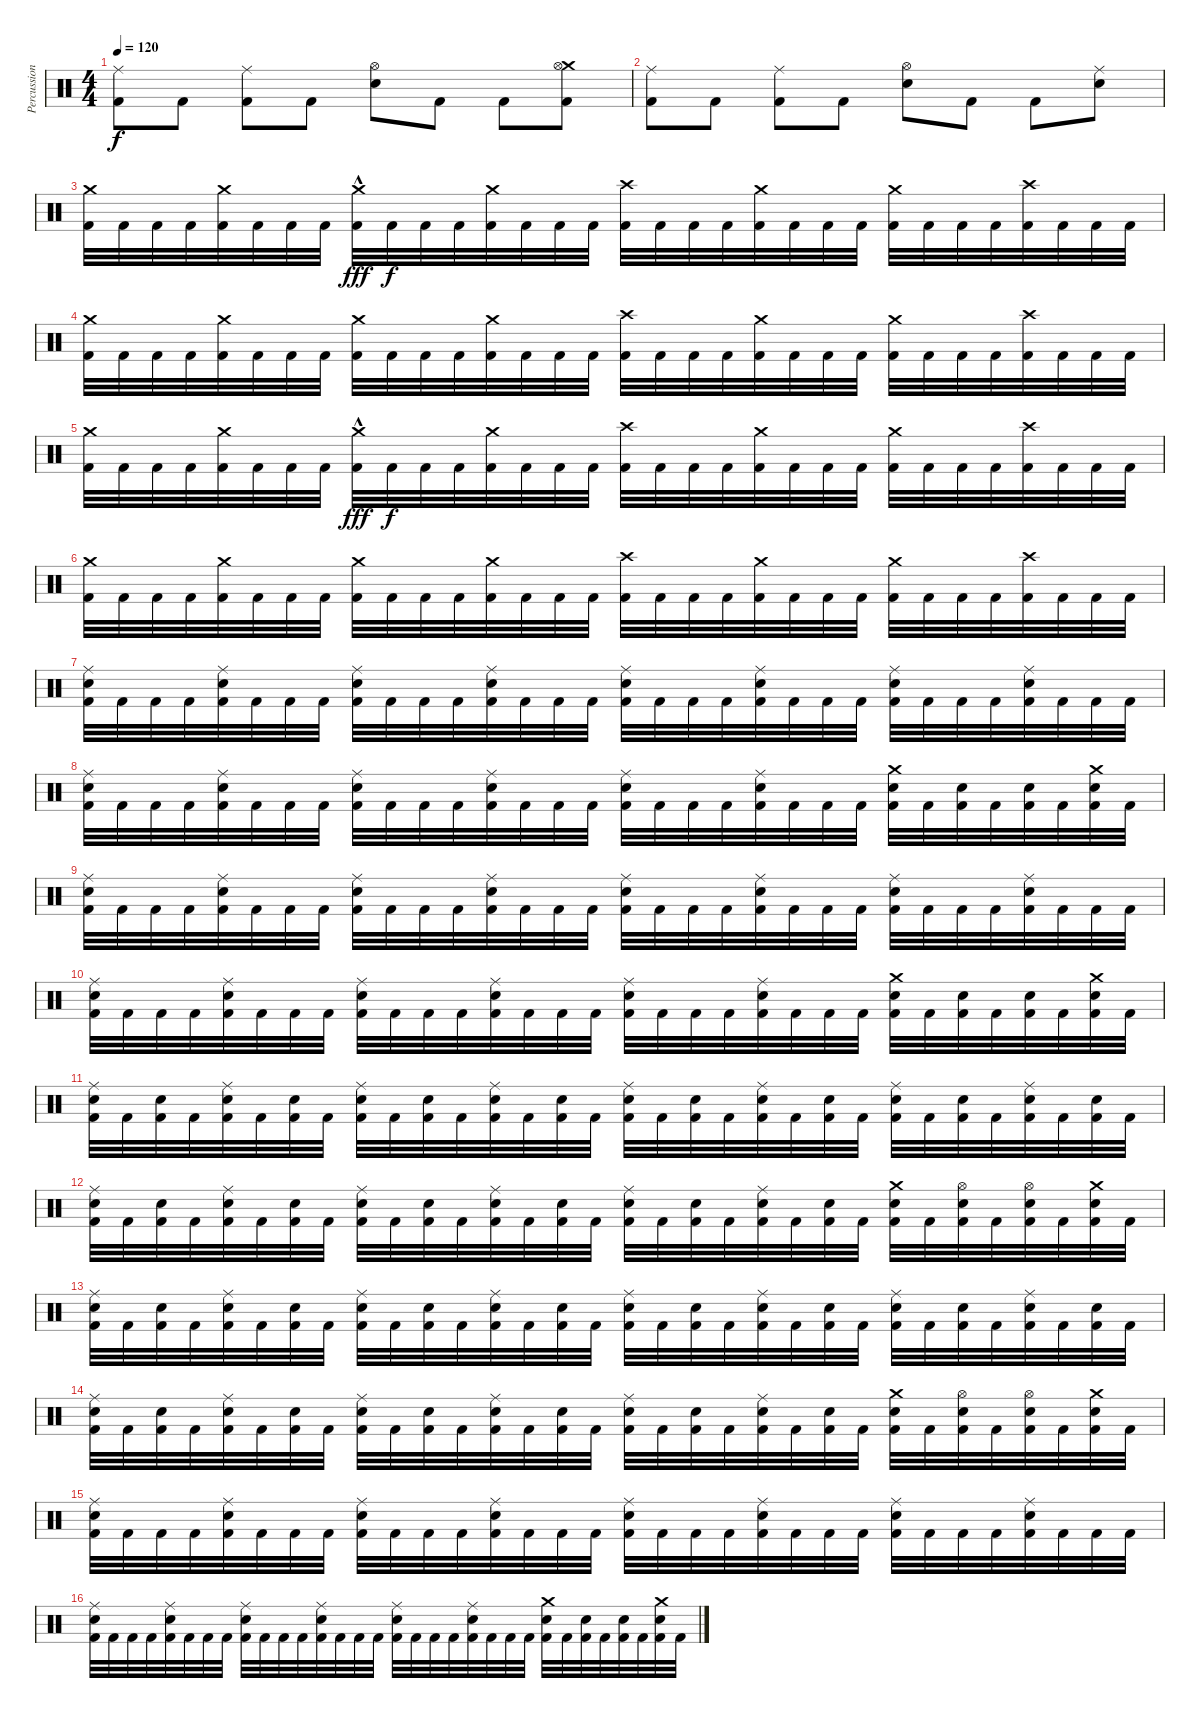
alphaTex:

\track ("Percussion" "Percussion") {instrument percussion}
\staff {score}
\articulation defaults
\ts (4 4)
\tempo 120
\clef neutral
\ks c
("Ride (middle)" "Kick (hit) 2").8{dy f} "Kick (hit) 2".8 ("Ride (middle)" "Kick (hit) 2").8 "Kick (hit) 2".8 ("Hi-Hat (open)" "Snare (hit) 2").8 "Kick (hit) 2".8 "Kick (hit) 2".8 ("Crash medium (hit)" "Hi-Hat (open)" "Kick (hit) 2").8 |
("Ride (middle)" "Kick (hit) 2").8 "Kick (hit) 2".8 ("Ride (middle)" "Kick (hit) 2").8 "Kick (hit) 2".8 ("Hi-Hat (open)" "Snare (hit) 2").8 "Kick (hit) 2".8 "Kick (hit) 2".8 ("Ride (middle)" "Snare (hit) 2").8 |
("Crash medium (hit)" "Kick (hit) 2").32 "Kick (hit) 2".32 "Kick (hit) 2".32 "Kick (hit) 2".32 ("Crash medium (hit)" "Kick (hit) 2").32 "Kick (hit) 2".32 "Kick (hit) 2".32 "Kick (hit) 2".32 ("Crash medium (hit)"{hac} "Kick (hit) 2").32{dy fff} "Kick (hit) 2".32{dy f} "Kick (hit) 2".32 "Kick (hit) 2".32 ("Crash medium (hit)" "Kick (hit) 2").32 "Kick (hit) 2".32 "Kick (hit) 2".32 "Kick (hit) 2".32 ("Crash high (hit)" "Kick (hit) 2").32 "Kick (hit) 2".32 "Kick (hit) 2".32 "Kick (hit) 2".32 ("Crash medium (hit)" "Kick (hit) 2").32 "Kick (hit) 2".32 "Kick (hit) 2".32 "Kick (hit) 2".32 ("Crash medium (hit)" "Kick (hit) 2").32 "Kick (hit) 2".32 "Kick (hit) 2".32 "Kick (hit) 2".32 ("Crash high (hit)" "Kick (hit) 2").32 "Kick (hit) 2".32 "Kick (hit) 2".32 "Kick (hit) 2".32 |
("Crash medium (hit)" "Kick (hit) 2").32 "Kick (hit) 2".32 "Kick (hit) 2".32 "Kick (hit) 2".32 ("Crash medium (hit)" "Kick (hit) 2").32 "Kick (hit) 2".32 "Kick (hit) 2".32 "Kick (hit) 2".32 ("Crash medium (hit)" "Kick (hit) 2").32 "Kick (hit) 2".32 "Kick (hit) 2".32 "Kick (hit) 2".32 ("Crash medium (hit)" "Kick (hit) 2").32 "Kick (hit) 2".32 "Kick (hit) 2".32 "Kick (hit) 2".32 ("Crash high (hit)" "Kick (hit) 2").32 "Kick (hit) 2".32 "Kick (hit) 2".32 "Kick (hit) 2".32 ("Crash medium (hit)" "Kick (hit) 2").32 "Kick (hit) 2".32 "Kick (hit) 2".32 "Kick (hit) 2".32 ("Crash medium (hit)" "Kick (hit) 2").32 "Kick (hit) 2".32 "Kick (hit) 2".32 "Kick (hit) 2".32 ("Crash high (hit)" "Kick (hit) 2").32 "Kick (hit) 2".32 "Kick (hit) 2".32 "Kick (hit) 2".32 |
("Crash medium (hit)" "Kick (hit) 2").32 "Kick (hit) 2".32 "Kick (hit) 2".32 "Kick (hit) 2".32 ("Crash medium (hit)" "Kick (hit) 2").32 "Kick (hit) 2".32 "Kick (hit) 2".32 "Kick (hit) 2".32 ("Crash medium (hit)"{hac} "Kick (hit) 2").32{dy fff} "Kick (hit) 2".32{dy f} "Kick (hit) 2".32 "Kick (hit) 2".32 ("Crash medium (hit)" "Kick (hit) 2").32 "Kick (hit) 2".32 "Kick (hit) 2".32 "Kick (hit) 2".32 ("Crash high (hit)" "Kick (hit) 2").32 "Kick (hit) 2".32 "Kick (hit) 2".32 "Kick (hit) 2".32 ("Crash medium (hit)" "Kick (hit) 2").32 "Kick (hit) 2".32 "Kick (hit) 2".32 "Kick (hit) 2".32 ("Crash medium (hit)" "Kick (hit) 2").32 "Kick (hit) 2".32 "Kick (hit) 2".32 "Kick (hit) 2".32 ("Crash high (hit)" "Kick (hit) 2").32 "Kick (hit) 2".32 "Kick (hit) 2".32 "Kick (hit) 2".32 |
("Crash medium (hit)" "Kick (hit) 2").32 "Kick (hit) 2".32 "Kick (hit) 2".32 "Kick (hit) 2".32 ("Crash medium (hit)" "Kick (hit) 2").32 "Kick (hit) 2".32 "Kick (hit) 2".32 "Kick (hit) 2".32 ("Crash medium (hit)" "Kick (hit) 2").32 "Kick (hit) 2".32 "Kick (hit) 2".32 "Kick (hit) 2".32 ("Crash medium (hit)" "Kick (hit) 2").32 "Kick (hit) 2".32 "Kick (hit) 2".32 "Kick (hit) 2".32 ("Crash high (hit)" "Kick (hit) 2").32 "Kick (hit) 2".32 "Kick (hit) 2".32 "Kick (hit) 2".32 ("Crash medium (hit)" "Kick (hit) 2").32 "Kick (hit) 2".32 "Kick (hit) 2".32 "Kick (hit) 2".32 ("Crash medium (hit)" "Kick (hit) 2").32 "Kick (hit) 2".32 "Kick (hit) 2".32 "Kick (hit) 2".32 ("Crash high (hit)" "Kick (hit) 2").32 "Kick (hit) 2".32 "Kick (hit) 2".32 "Kick (hit) 2".32 |
("Ride (middle)" "Snare (hit) 2" "Kick (hit) 2").32 "Kick (hit) 2".32 "Kick (hit) 2".32 "Kick (hit) 2".32 ("Ride (middle)" "Snare (hit) 2" "Kick (hit) 2").32 "Kick (hit) 2".32 "Kick (hit) 2".32 "Kick (hit) 2".32 ("Ride (middle)" "Snare (hit) 2" "Kick (hit) 2").32 "Kick (hit) 2".32 "Kick (hit) 2".32 "Kick (hit) 2".32 ("Ride (middle)" "Snare (hit) 2" "Kick (hit) 2").32 "Kick (hit) 2".32 "Kick (hit) 2".32 "Kick (hit) 2".32 ("Ride (middle)" "Snare (hit) 2" "Kick (hit) 2").32 "Kick (hit) 2".32 "Kick (hit) 2".32 "Kick (hit) 2".32 ("Ride (middle)" "Snare (hit) 2" "Kick (hit) 2").32 "Kick (hit) 2".32 "Kick (hit) 2".32 "Kick (hit) 2".32 ("Ride (middle)" "Snare (hit) 2" "Kick (hit) 2").32 "Kick (hit) 2".32 "Kick (hit) 2".32 "Kick (hit) 2".32 ("Ride (middle)" "Snare (hit) 2" "Kick (hit) 2").32 "Kick (hit) 2".32 "Kick (hit) 2".32 "Kick (hit) 2".32 |
("Ride (middle)" "Snare (hit) 2" "Kick (hit) 2").32 "Kick (hit) 2".32 "Kick (hit) 2".32 "Kick (hit) 2".32 ("Ride (middle)" "Snare (hit) 2" "Kick (hit) 2").32 "Kick (hit) 2".32 "Kick (hit) 2".32 "Kick (hit) 2".32 ("Ride (middle)" "Snare (hit) 2" "Kick (hit) 2").32 "Kick (hit) 2".32 "Kick (hit) 2".32 "Kick (hit) 2".32 ("Ride (middle)" "Snare (hit) 2" "Kick (hit) 2").32 "Kick (hit) 2".32 "Kick (hit) 2".32 "Kick (hit) 2".32 ("Ride (middle)" "Snare (hit) 2" "Kick (hit) 2").32 "Kick (hit) 2".32 "Kick (hit) 2".32 "Kick (hit) 2".32 ("Ride (middle)" "Snare (hit) 2" "Kick (hit) 2").32 "Kick (hit) 2".32 "Kick (hit) 2".32 "Kick (hit) 2".32 ("Crash medium (hit)" "Snare (hit) 2" "Kick (hit) 2").32 "Kick (hit) 2".32 ("Snare (hit) 2" "Kick (hit) 2").32 "Kick (hit) 2".32 ("Snare (hit) 2" "Kick (hit) 2").32 "Kick (hit) 2".32 ("Crash medium (hit)" "Snare (hit) 2" "Kick (hit) 2").32 "Kick (hit) 2".32 |
("Ride (middle)" "Snare (hit) 2" "Kick (hit) 2").32 "Kick (hit) 2".32 "Kick (hit) 2".32 "Kick (hit) 2".32 ("Ride (middle)" "Snare (hit) 2" "Kick (hit) 2").32 "Kick (hit) 2".32 "Kick (hit) 2".32 "Kick (hit) 2".32 ("Ride (middle)" "Snare (hit) 2" "Kick (hit) 2").32 "Kick (hit) 2".32 "Kick (hit) 2".32 "Kick (hit) 2".32 ("Ride (middle)" "Snare (hit) 2" "Kick (hit) 2").32 "Kick (hit) 2".32 "Kick (hit) 2".32 "Kick (hit) 2".32 ("Ride (middle)" "Snare (hit) 2" "Kick (hit) 2").32 "Kick (hit) 2".32 "Kick (hit) 2".32 "Kick (hit) 2".32 ("Ride (middle)" "Snare (hit) 2" "Kick (hit) 2").32 "Kick (hit) 2".32 "Kick (hit) 2".32 "Kick (hit) 2".32 ("Ride (middle)" "Snare (hit) 2" "Kick (hit) 2").32 "Kick (hit) 2".32 "Kick (hit) 2".32 "Kick (hit) 2".32 ("Ride (middle)" "Snare (hit) 2" "Kick (hit) 2").32 "Kick (hit) 2".32 "Kick (hit) 2".32 "Kick (hit) 2".32 |
("Ride (middle)" "Snare (hit) 2" "Kick (hit) 2").32 "Kick (hit) 2".32 "Kick (hit) 2".32 "Kick (hit) 2".32 ("Ride (middle)" "Snare (hit) 2" "Kick (hit) 2").32 "Kick (hit) 2".32 "Kick (hit) 2".32 "Kick (hit) 2".32 ("Ride (middle)" "Snare (hit) 2" "Kick (hit) 2").32 "Kick (hit) 2".32 "Kick (hit) 2".32 "Kick (hit) 2".32 ("Ride (middle)" "Snare (hit) 2" "Kick (hit) 2").32 "Kick (hit) 2".32 "Kick (hit) 2".32 "Kick (hit) 2".32 ("Ride (middle)" "Snare (hit) 2" "Kick (hit) 2").32 "Kick (hit) 2".32 "Kick (hit) 2".32 "Kick (hit) 2".32 ("Ride (middle)" "Snare (hit) 2" "Kick (hit) 2").32 "Kick (hit) 2".32 "Kick (hit) 2".32 "Kick (hit) 2".32 ("Crash medium (hit)" "Snare (hit) 2" "Kick (hit) 2").32 "Kick (hit) 2".32 ("Snare (hit) 2" "Kick (hit) 2").32 "Kick (hit) 2".32 ("Snare (hit) 2" "Kick (hit) 2").32 "Kick (hit) 2".32 ("Crash medium (hit)" "Snare (hit) 2" "Kick (hit) 2").32 "Kick (hit) 2".32 |
("Ride (middle)" "Snare (hit) 2" "Kick (hit) 2").32 "Kick (hit) 2".32 ("Snare (hit) 2" "Kick (hit) 2").32 "Kick (hit) 2".32 ("Ride (middle)" "Snare (hit) 2" "Kick (hit) 2").32 "Kick (hit) 2".32 ("Snare (hit) 2" "Kick (hit) 2").32 "Kick (hit) 2".32 ("Ride (middle)" "Snare (hit) 2" "Kick (hit) 2").32 "Kick (hit) 2".32 ("Snare (hit) 2" "Kick (hit) 2").32 "Kick (hit) 2".32 ("Ride (middle)" "Snare (hit) 2" "Kick (hit) 2").32 "Kick (hit) 2".32 ("Snare (hit) 2" "Kick (hit) 2").32 "Kick (hit) 2".32 ("Ride (middle)" "Snare (hit) 2" "Kick (hit) 2").32 "Kick (hit) 2".32 ("Snare (hit) 2" "Kick (hit) 2").32 "Kick (hit) 2".32 ("Ride (middle)" "Snare (hit) 2" "Kick (hit) 2").32 "Kick (hit) 2".32 ("Snare (hit) 2" "Kick (hit) 2").32 "Kick (hit) 2".32 ("Ride (middle)" "Snare (hit) 2" "Kick (hit) 2").32 "Kick (hit) 2".32 ("Snare (hit) 2" "Kick (hit) 2").32 "Kick (hit) 2".32 ("Ride (middle)" "Snare (hit) 2" "Kick (hit) 2").32 "Kick (hit) 2".32 ("Snare (hit) 2" "Kick (hit) 2").32 "Kick (hit) 2".32 |
("Ride (middle)" "Snare (hit) 2" "Kick (hit) 2").32 "Kick (hit) 2".32 ("Snare (hit) 2" "Kick (hit) 2").32 "Kick (hit) 2".32 ("Ride (middle)" "Snare (hit) 2" "Kick (hit) 2").32 "Kick (hit) 2".32 ("Snare (hit) 2" "Kick (hit) 2").32 "Kick (hit) 2".32 ("Ride (middle)" "Snare (hit) 2" "Kick (hit) 2").32 "Kick (hit) 2".32 ("Snare (hit) 2" "Kick (hit) 2").32 "Kick (hit) 2".32 ("Ride (middle)" "Snare (hit) 2" "Kick (hit) 2").32 "Kick (hit) 2".32 ("Snare (hit) 2" "Kick (hit) 2").32 "Kick (hit) 2".32 ("Ride (middle)" "Snare (hit) 2" "Kick (hit) 2").32 "Kick (hit) 2".32 ("Snare (hit) 2" "Kick (hit) 2").32 "Kick (hit) 2".32 ("Ride (middle)" "Snare (hit) 2" "Kick (hit) 2").32 "Kick (hit) 2".32 ("Snare (hit) 2" "Kick (hit) 2").32 "Kick (hit) 2".32 ("Crash medium (hit)" "Snare (hit) 2" "Kick (hit) 2").32 "Kick (hit) 2".32 ("Hi-Hat (open)" "Snare (hit) 2" "Kick (hit) 2").32 "Kick (hit) 2".32 ("Hi-Hat (open)" "Snare (hit) 2" "Kick (hit) 2").32 "Kick (hit) 2".32 ("Crash medium (hit)" "Snare (hit) 2" "Kick (hit) 2").32 "Kick (hit) 2".32 |
("Ride (middle)" "Snare (hit) 2" "Kick (hit) 2").32 "Kick (hit) 2".32 ("Snare (hit) 2" "Kick (hit) 2").32 "Kick (hit) 2".32 ("Ride (middle)" "Snare (hit) 2" "Kick (hit) 2").32 "Kick (hit) 2".32 ("Snare (hit) 2" "Kick (hit) 2").32 "Kick (hit) 2".32 ("Ride (middle)" "Snare (hit) 2" "Kick (hit) 2").32 "Kick (hit) 2".32 ("Snare (hit) 2" "Kick (hit) 2").32 "Kick (hit) 2".32 ("Ride (middle)" "Snare (hit) 2" "Kick (hit) 2").32 "Kick (hit) 2".32 ("Snare (hit) 2" "Kick (hit) 2").32 "Kick (hit) 2".32 ("Ride (middle)" "Snare (hit) 2" "Kick (hit) 2").32 "Kick (hit) 2".32 ("Snare (hit) 2" "Kick (hit) 2").32 "Kick (hit) 2".32 ("Ride (middle)" "Snare (hit) 2" "Kick (hit) 2").32 "Kick (hit) 2".32 ("Snare (hit) 2" "Kick (hit) 2").32 "Kick (hit) 2".32 ("Ride (middle)" "Snare (hit) 2" "Kick (hit) 2").32 "Kick (hit) 2".32 ("Snare (hit) 2" "Kick (hit) 2").32 "Kick (hit) 2".32 ("Ride (middle)" "Snare (hit) 2" "Kick (hit) 2").32 "Kick (hit) 2".32 ("Snare (hit) 2" "Kick (hit) 2").32 "Kick (hit) 2".32 |
("Ride (middle)" "Snare (hit) 2" "Kick (hit) 2").32 "Kick (hit) 2".32 ("Snare (hit) 2" "Kick (hit) 2").32 "Kick (hit) 2".32 ("Ride (middle)" "Snare (hit) 2" "Kick (hit) 2").32 "Kick (hit) 2".32 ("Snare (hit) 2" "Kick (hit) 2").32 "Kick (hit) 2".32 ("Ride (middle)" "Snare (hit) 2" "Kick (hit) 2").32 "Kick (hit) 2".32 ("Snare (hit) 2" "Kick (hit) 2").32 "Kick (hit) 2".32 ("Ride (middle)" "Snare (hit) 2" "Kick (hit) 2").32 "Kick (hit) 2".32 ("Snare (hit) 2" "Kick (hit) 2").32 "Kick (hit) 2".32 ("Ride (middle)" "Snare (hit) 2" "Kick (hit) 2").32 "Kick (hit) 2".32 ("Snare (hit) 2" "Kick (hit) 2").32 "Kick (hit) 2".32 ("Ride (middle)" "Snare (hit) 2" "Kick (hit) 2").32 "Kick (hit) 2".32 ("Snare (hit) 2" "Kick (hit) 2").32 "Kick (hit) 2".32 ("Crash medium (hit)" "Snare (hit) 2" "Kick (hit) 2").32 "Kick (hit) 2".32 ("Hi-Hat (open)" "Snare (hit) 2" "Kick (hit) 2").32 "Kick (hit) 2".32 ("Hi-Hat (open)" "Snare (hit) 2" "Kick (hit) 2").32 "Kick (hit) 2".32 ("Crash medium (hit)" "Snare (hit) 2" "Kick (hit) 2").32 "Kick (hit) 2".32 |
("Ride (middle)" "Snare (hit) 2" "Kick (hit) 2").32 "Kick (hit) 2".32 "Kick (hit) 2".32 "Kick (hit) 2".32 ("Ride (middle)" "Snare (hit) 2" "Kick (hit) 2").32 "Kick (hit) 2".32 "Kick (hit) 2".32 "Kick (hit) 2".32 ("Ride (middle)" "Snare (hit) 2" "Kick (hit) 2").32 "Kick (hit) 2".32 "Kick (hit) 2".32 "Kick (hit) 2".32 ("Ride (middle)" "Snare (hit) 2" "Kick (hit) 2").32 "Kick (hit) 2".32 "Kick (hit) 2".32 "Kick (hit) 2".32 ("Ride (middle)" "Snare (hit) 2" "Kick (hit) 2").32 "Kick (hit) 2".32 "Kick (hit) 2".32 "Kick (hit) 2".32 ("Ride (middle)" "Snare (hit) 2" "Kick (hit) 2").32 "Kick (hit) 2".32 "Kick (hit) 2".32 "Kick (hit) 2".32 ("Ride (middle)" "Snare (hit) 2" "Kick (hit) 2").32 "Kick (hit) 2".32 "Kick (hit) 2".32 "Kick (hit) 2".32 ("Ride (middle)" "Snare (hit) 2" "Kick (hit) 2").32 "Kick (hit) 2".32 "Kick (hit) 2".32 "Kick (hit) 2".32 |
("Ride (middle)" "Snare (hit) 2" "Kick (hit) 2").32 "Kick (hit) 2".32 "Kick (hit) 2".32 "Kick (hit) 2".32 ("Ride (middle)" "Snare (hit) 2" "Kick (hit) 2").32 "Kick (hit) 2".32 "Kick (hit) 2".32 "Kick (hit) 2".32 ("Ride (middle)" "Snare (hit) 2" "Kick (hit) 2").32 "Kick (hit) 2".32 "Kick (hit) 2".32 "Kick (hit) 2".32 ("Ride (middle)" "Snare (hit) 2" "Kick (hit) 2").32 "Kick (hit) 2".32 "Kick (hit) 2".32 "Kick (hit) 2".32 ("Ride (middle)" "Snare (hit) 2" "Kick (hit) 2").32 "Kick (hit) 2".32 "Kick (hit) 2".32 "Kick (hit) 2".32 ("Ride (middle)" "Snare (hit) 2" "Kick (hit) 2").32 "Kick (hit) 2".32 "Kick (hit) 2".32 "Kick (hit) 2".32 ("Crash medium (hit)" "Snare (hit) 2" "Kick (hit) 2").32 "Kick (hit) 2".32 ("Snare (hit) 2" "Kick (hit) 2").32 "Kick (hit) 2".32 ("Snare (hit) 2" "Kick (hit) 2").32 "Kick (hit) 2".32 ("Crash medium (hit)" "Snare (hit) 2" "Kick (hit) 2").32 "Kick (hit) 2".32
